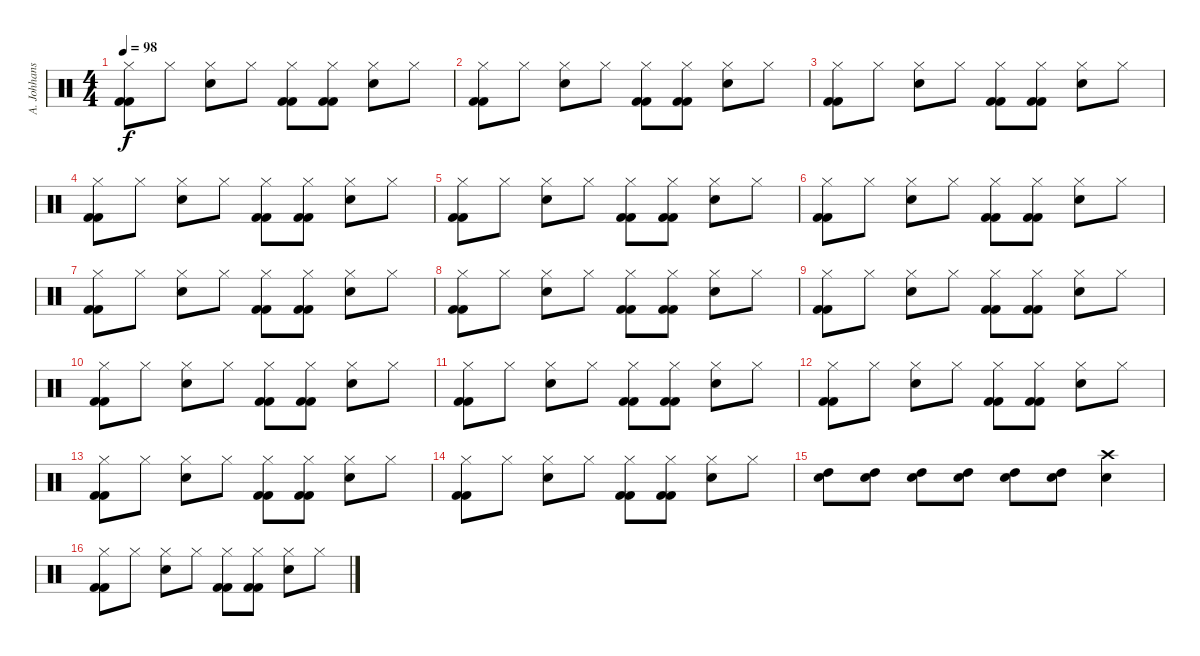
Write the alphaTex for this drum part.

\track ("A. Johhanson" "A. Johhans") {instrument percussion}
\staff {score}
\articulation defaults
\ts (4 4)
\tempo 98
\clef neutral
\ks c
("Hi-Hat (closed)" "Kick (hit) 2" "Kick (hit) 2").8{dy f} "Hi-Hat (closed)".8 ("Hi-Hat (closed)" "Snare (hit) 2").8 "Hi-Hat (closed)".8 ("Hi-Hat (closed)" "Kick (hit) 2" "Kick (hit) 2").8 ("Hi-Hat (closed)" "Kick (hit) 2" "Kick (hit) 2").8 ("Hi-Hat (closed)" "Snare (hit) 2").8 "Hi-Hat (closed)".8 |
("Hi-Hat (closed)" "Kick (hit) 2" "Kick (hit) 2").8 "Hi-Hat (closed)".8 ("Hi-Hat (closed)" "Snare (hit) 2").8 "Hi-Hat (closed)".8 ("Hi-Hat (closed)" "Kick (hit) 2" "Kick (hit) 2").8 ("Hi-Hat (closed)" "Kick (hit) 2" "Kick (hit) 2").8 ("Hi-Hat (closed)" "Snare (hit) 2").8 "Hi-Hat (closed)".8 |
("Hi-Hat (closed)" "Kick (hit) 2" "Kick (hit) 2").8 "Hi-Hat (closed)".8 ("Hi-Hat (closed)" "Snare (hit) 2").8 "Hi-Hat (closed)".8 ("Hi-Hat (closed)" "Kick (hit) 2" "Kick (hit) 2").8 ("Hi-Hat (closed)" "Kick (hit) 2" "Kick (hit) 2").8 ("Hi-Hat (closed)" "Snare (hit) 2").8 "Hi-Hat (closed)".8 |
("Hi-Hat (closed)" "Kick (hit) 2" "Kick (hit) 2").8 "Hi-Hat (closed)".8 ("Hi-Hat (closed)" "Snare (hit) 2").8 "Hi-Hat (closed)".8 ("Hi-Hat (closed)" "Kick (hit) 2" "Kick (hit) 2").8 ("Hi-Hat (closed)" "Kick (hit) 2" "Kick (hit) 2").8 ("Hi-Hat (closed)" "Snare (hit) 2").8 "Hi-Hat (closed)".8 |
("Hi-Hat (closed)" "Kick (hit) 2" "Kick (hit) 2").8 "Hi-Hat (closed)".8 ("Hi-Hat (closed)" "Snare (hit) 2").8 "Hi-Hat (closed)".8 ("Hi-Hat (closed)" "Kick (hit) 2" "Kick (hit) 2").8 ("Hi-Hat (closed)" "Kick (hit) 2" "Kick (hit) 2").8 ("Hi-Hat (closed)" "Snare (hit) 2").8 "Hi-Hat (closed)".8 |
("Hi-Hat (closed)" "Kick (hit) 2" "Kick (hit) 2").8 "Hi-Hat (closed)".8 ("Hi-Hat (closed)" "Snare (hit) 2").8 "Hi-Hat (closed)".8 ("Hi-Hat (closed)" "Kick (hit) 2" "Kick (hit) 2").8 ("Hi-Hat (closed)" "Kick (hit) 2" "Kick (hit) 2").8 ("Hi-Hat (closed)" "Snare (hit) 2").8 "Hi-Hat (closed)".8 |
("Hi-Hat (closed)" "Kick (hit) 2" "Kick (hit) 2").8 "Hi-Hat (closed)".8 ("Hi-Hat (closed)" "Snare (hit) 2").8 "Hi-Hat (closed)".8 ("Hi-Hat (closed)" "Kick (hit) 2" "Kick (hit) 2").8 ("Hi-Hat (closed)" "Kick (hit) 2" "Kick (hit) 2").8 ("Hi-Hat (closed)" "Snare (hit) 2").8 "Hi-Hat (closed)".8 |
("Hi-Hat (closed)" "Kick (hit) 2" "Kick (hit) 2").8 "Hi-Hat (closed)".8 ("Hi-Hat (closed)" "Snare (hit) 2").8 "Hi-Hat (closed)".8 ("Hi-Hat (closed)" "Kick (hit) 2" "Kick (hit) 2").8 ("Hi-Hat (closed)" "Kick (hit) 2" "Kick (hit) 2").8 ("Hi-Hat (closed)" "Snare (hit) 2").8 "Hi-Hat (closed)".8 |
("Hi-Hat (closed)" "Kick (hit) 2" "Kick (hit) 2").8 "Hi-Hat (closed)".8 ("Hi-Hat (closed)" "Snare (hit) 2").8 "Hi-Hat (closed)".8 ("Hi-Hat (closed)" "Kick (hit) 2" "Kick (hit) 2").8 ("Hi-Hat (closed)" "Kick (hit) 2" "Kick (hit) 2").8 ("Hi-Hat (closed)" "Snare (hit) 2").8 "Hi-Hat (closed)".8 |
("Hi-Hat (closed)" "Kick (hit) 2" "Kick (hit) 2").8 "Hi-Hat (closed)".8 ("Hi-Hat (closed)" "Snare (hit) 2").8 "Hi-Hat (closed)".8 ("Hi-Hat (closed)" "Kick (hit) 2" "Kick (hit) 2").8 ("Hi-Hat (closed)" "Kick (hit) 2" "Kick (hit) 2").8 ("Hi-Hat (closed)" "Snare (hit) 2").8 "Hi-Hat (closed)".8 |
("Hi-Hat (closed)" "Kick (hit) 2" "Kick (hit) 2").8 "Hi-Hat (closed)".8 ("Hi-Hat (closed)" "Snare (hit) 2").8 "Hi-Hat (closed)".8 ("Hi-Hat (closed)" "Kick (hit) 2" "Kick (hit) 2").8 ("Hi-Hat (closed)" "Kick (hit) 2" "Kick (hit) 2").8 ("Hi-Hat (closed)" "Snare (hit) 2").8 "Hi-Hat (closed)".8 |
("Hi-Hat (closed)" "Kick (hit) 2" "Kick (hit) 2").8 "Hi-Hat (closed)".8 ("Hi-Hat (closed)" "Snare (hit) 2").8 "Hi-Hat (closed)".8 ("Hi-Hat (closed)" "Kick (hit) 2" "Kick (hit) 2").8 ("Hi-Hat (closed)" "Kick (hit) 2" "Kick (hit) 2").8 ("Hi-Hat (closed)" "Snare (hit) 2").8 "Hi-Hat (closed)".8 |
("Hi-Hat (closed)" "Kick (hit) 2" "Kick (hit) 2").8 "Hi-Hat (closed)".8 ("Hi-Hat (closed)" "Snare (hit) 2").8 "Hi-Hat (closed)".8 ("Hi-Hat (closed)" "Kick (hit) 2" "Kick (hit) 2").8 ("Hi-Hat (closed)" "Kick (hit) 2" "Kick (hit) 2").8 ("Hi-Hat (closed)" "Snare (hit) 2").8 "Hi-Hat (closed)".8 |
("Hi-Hat (closed)" "Kick (hit) 2" "Kick (hit) 2").8 "Hi-Hat (closed)".8 ("Hi-Hat (closed)" "Snare (hit) 2").8 "Hi-Hat (closed)".8 ("Hi-Hat (closed)" "Kick (hit) 2" "Kick (hit) 2").8 ("Hi-Hat (closed)" "Kick (hit) 2" "Kick (hit) 2").8 ("Hi-Hat (closed)" "Snare (hit) 2").8 "Hi-Hat (closed)".8 |
("High Tom (hit)" "Snare (hit) 2").8 ("High Tom (hit)" "Snare (hit) 2").8 ("High Tom (hit)" "Snare (hit) 2").8 ("High Tom (hit)" "Snare (hit) 2").8 ("High Tom (hit)" "Snare (hit) 2").8 ("High Tom (hit)" "Snare (hit) 2").8 ("Crash high (hit)" "Snare (hit) 2").4 |
("Hi-Hat (closed)" "Kick (hit) 2" "Kick (hit) 2").8 "Hi-Hat (closed)".8 ("Hi-Hat (closed)" "Snare (hit) 2").8 "Hi-Hat (closed)".8 ("Hi-Hat (closed)" "Kick (hit) 2" "Kick (hit) 2").8 ("Hi-Hat (closed)" "Kick (hit) 2" "Kick (hit) 2").8 ("Hi-Hat (closed)" "Snare (hit) 2").8 "Hi-Hat (closed)".8
